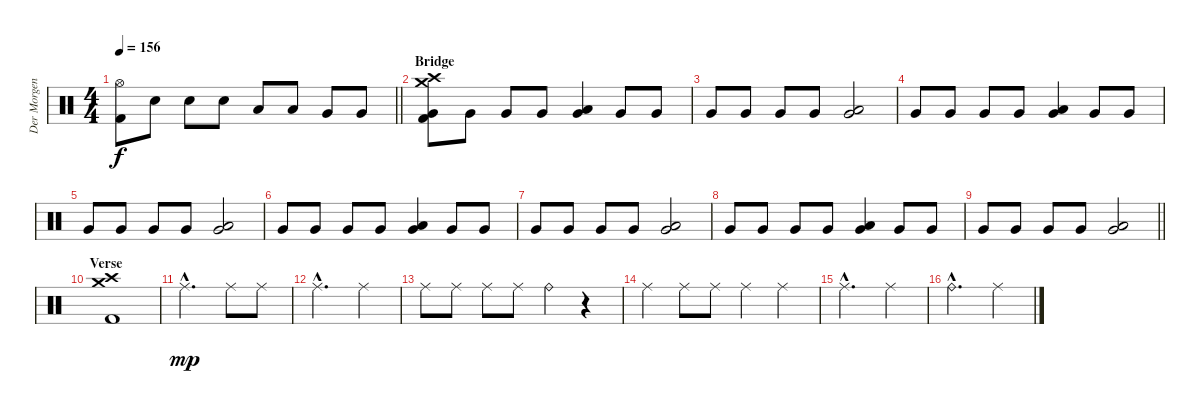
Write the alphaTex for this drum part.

\track ("Der Morgenstern" "Der Morgen") {instrument percussion}
\staff {score}
\articulation defaults
\ts (4 4)
\tempo 156
\clef neutral
\barLineRight lightlight
\ks c
("Hi-Hat (open)" "Kick (hit) 2").8{dy f} "Electric Snare (hit)".8 "Electric Snare (hit)".8 "Electric Snare (hit)".8 "Low Tom (hit)".8 "Low Tom (hit)".8 "Very Low Tom (hit)".8 "Very Low Tom (hit)".8 |
\section ("" "Bridge")
("Crash high (hit)" "Crash medium (hit)" "Very Low Tom (hit)" "Kick (hit) 2").8 "Very Low Tom (hit)".8 "Very Low Tom (hit)".8 "Very Low Tom (hit)".8 ("Low Tom (hit)" "Very Low Tom (hit)").4 "Very Low Tom (hit)".8 "Very Low Tom (hit)".8 |
"Very Low Tom (hit)".8 "Very Low Tom (hit)".8 "Very Low Tom (hit)".8 "Very Low Tom (hit)".8 ("Low Tom (hit)" "Very Low Tom (hit)").2 |
"Very Low Tom (hit)".8 "Very Low Tom (hit)".8 "Very Low Tom (hit)".8 "Very Low Tom (hit)".8 ("Low Tom (hit)" "Very Low Tom (hit)").4 "Very Low Tom (hit)".8 "Very Low Tom (hit)".8 |
"Very Low Tom (hit)".8 "Very Low Tom (hit)".8 "Very Low Tom (hit)".8 "Very Low Tom (hit)".8 ("Low Tom (hit)" "Very Low Tom (hit)").2 |
"Very Low Tom (hit)".8 "Very Low Tom (hit)".8 "Very Low Tom (hit)".8 "Very Low Tom (hit)".8 ("Low Tom (hit)" "Very Low Tom (hit)").4 "Very Low Tom (hit)".8 "Very Low Tom (hit)".8 |
"Very Low Tom (hit)".8 "Very Low Tom (hit)".8 "Very Low Tom (hit)".8 "Very Low Tom (hit)".8 ("Low Tom (hit)" "Very Low Tom (hit)").2 |
"Very Low Tom (hit)".8 "Very Low Tom (hit)".8 "Very Low Tom (hit)".8 "Very Low Tom (hit)".8 ("Low Tom (hit)" "Very Low Tom (hit)").4 "Very Low Tom (hit)".8 "Very Low Tom (hit)".8 |
\barLineRight lightlight "Very Low Tom (hit)".8 "Very Low Tom (hit)".8 "Very Low Tom (hit)".8 "Very Low Tom (hit)".8
("Low Tom (hit)" "Very Low Tom (hit)").2 |
\section ("" "Verse")
("Crash high (hit)" "Crash medium (hit)" "Kick (hit) 2").1 |
"Ride (middle)"{hac}.2{d dy mp} "Ride (middle)".8 "Ride (middle)".8 |
"Ride (middle)"{hac}.2{d} "Ride (middle)".4 |
"Ride (middle)".8 "Ride (middle)".8 "Ride (middle)".8 "Ride (middle)".8 "Ride (bell)".4 r.4 |
"Ride (middle)".4 "Ride (middle)".8 "Ride (middle)".8 "Ride (middle)".4 "Ride (middle)".4 |
"Ride (middle)"{hac}.2{d} "Ride (middle)".4 |
"Ride (bell)"{hac}.2{d} "Ride (middle)".4
